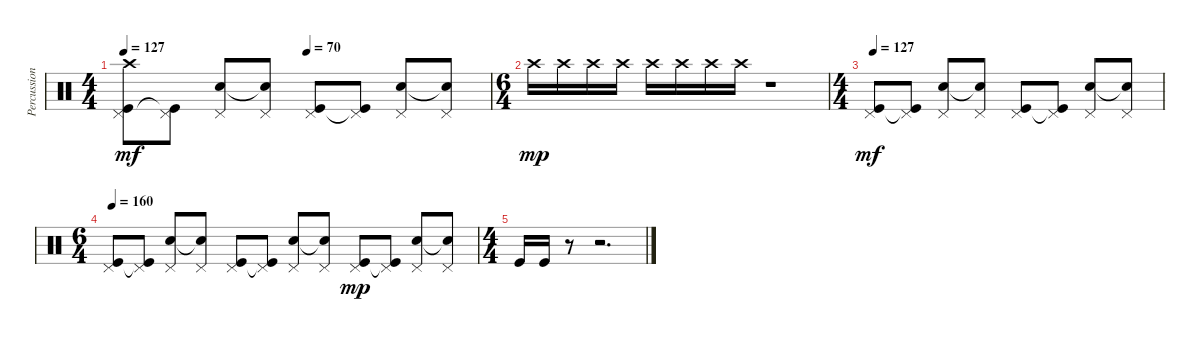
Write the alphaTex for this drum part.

\track ("Percussion" "Percussion") {instrument percussion}
\staff {score}
\articulation defaults
\ts (4 4)
\tempo 127
\tempo (70 0.5)
\clef neutral
\ks c
("Crash high (hit)" "Pedal Hi-Hat (hit)" "Kick (hit)").8{dy mf} ("Pedal Hi-Hat (hit)" "Kick (hit)"{t}).8 ("Pedal Hi-Hat (hit)" "Snare (hit) 2").8 ("Pedal Hi-Hat (hit)" "Snare (hit) 2"{t}).8 ("Pedal Hi-Hat (hit)" "Kick (hit)").8 ("Pedal Hi-Hat (hit)" "Kick (hit)"{t}).8 ("Pedal Hi-Hat (hit)" "Snare (hit) 2").8 ("Pedal Hi-Hat (hit)" "Snare (hit) 2"{t}).8 |
\ts (6 4)
"Crash high (hit)".16{dy mp} "Crash high (hit)".16 "Crash high (hit)".16 "Crash high (hit)".16 "Crash high (hit)".16 "Crash high (hit)".16 "Crash high (hit)".16 "Crash high (hit)".16 r.1 |
\ts (4 4)
\tempo 127
("Pedal Hi-Hat (hit)" "Kick (hit)").8{dy mf} ("Pedal Hi-Hat (hit)" "Kick (hit)"{t}).8 ("Pedal Hi-Hat (hit)" "Snare (hit) 2").8 ("Pedal Hi-Hat (hit)" "Snare (hit) 2"{t}).8 ("Pedal Hi-Hat (hit)" "Kick (hit)").8 ("Pedal Hi-Hat (hit)" "Kick (hit)"{t}).8 ("Pedal Hi-Hat (hit)" "Snare (hit) 2").8 ("Pedal Hi-Hat (hit)" "Snare (hit) 2"{t}).8 |
\ts (6 4)
\tempo 160
("Pedal Hi-Hat (hit)" "Kick (hit)").8 ("Pedal Hi-Hat (hit)" "Kick (hit)"{t}).8 ("Pedal Hi-Hat (hit)" "Snare (hit) 2").8 ("Pedal Hi-Hat (hit)" "Snare (hit) 2"{t}).8 ("Pedal Hi-Hat (hit)" "Kick (hit)").8 ("Pedal Hi-Hat (hit)" "Kick (hit)"{t}).8 ("Pedal Hi-Hat (hit)" "Snare (hit) 2").8 ("Pedal Hi-Hat (hit)" "Snare (hit) 2"{t}).8 ("Pedal Hi-Hat (hit)" "Kick (hit)").8{dy mp} ("Pedal Hi-Hat (hit)" "Kick (hit)"{t}).8 ("Pedal Hi-Hat (hit)" "Snare (hit) 2").8 ("Pedal Hi-Hat (hit)" "Snare (hit) 2"{t}).8 |
\ts (4 4)
"Kick (hit)".16 "Kick (hit)".16 r.8 r.2{d}
